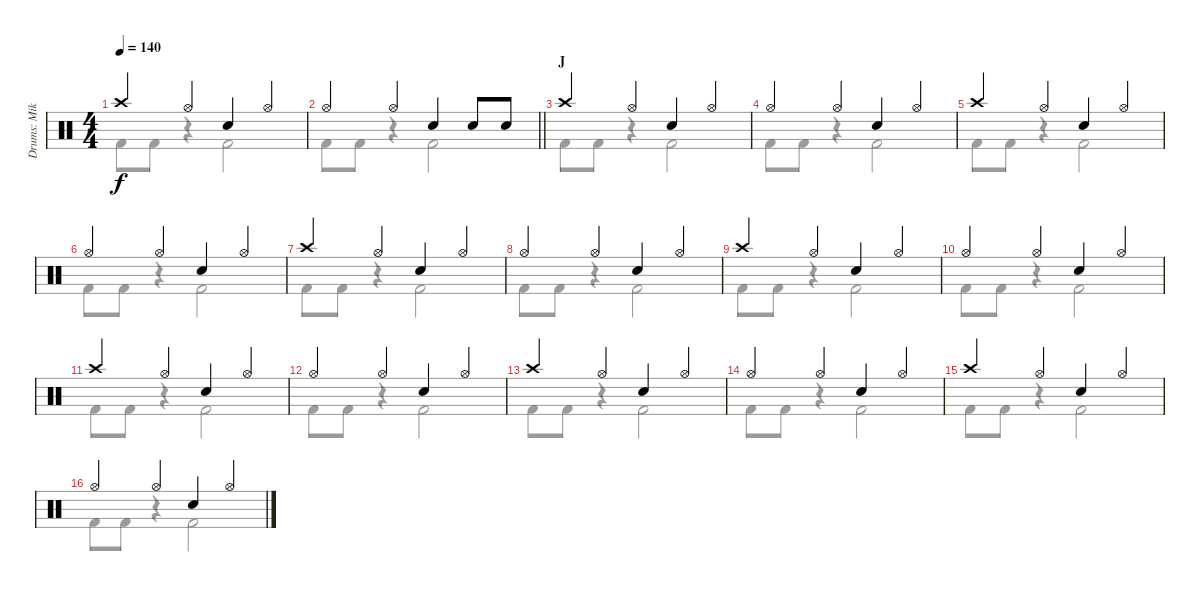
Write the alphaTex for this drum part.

\track ("Drums: Mike" "Drums: Mik") {instrument percussion}
\staff {score}
\articulation defaults
\voice
\ts (4 4)
\tempo 140
\clef neutral
\ks c "Crash high (hit)".4{dy f} "Hi-Hat (open)".4 "Snare (hit) 2".4 "Hi-Hat (open)".4
|
\barLineRight lightlight "Hi-Hat (open)".4 "Hi-Hat (open)".4 "Snare (hit) 2".4 "Snare (hit) 2".8 "Snare (hit) 2".8
|
\section ("" "J")
"Crash high (hit)".4 "Hi-Hat (open)".4 "Snare (hit) 2".4 "Hi-Hat (open)".4 |
"Hi-Hat (open)".4 "Hi-Hat (open)".4 "Snare (hit) 2".4 "Hi-Hat (open)".4 |
"Crash high (hit)".4 "Hi-Hat (open)".4 "Snare (hit) 2".4 "Hi-Hat (open)".4 |
"Hi-Hat (open)".4 "Hi-Hat (open)".4 "Snare (hit) 2".4 "Hi-Hat (open)".4 |
"Crash high (hit)".4 "Hi-Hat (open)".4 "Snare (hit) 2".4 "Hi-Hat (open)".4 |
"Hi-Hat (open)".4 "Hi-Hat (open)".4 "Snare (hit) 2".4 "Hi-Hat (open)".4 |
"Crash high (hit)".4 "Hi-Hat (open)".4 "Snare (hit) 2".4 "Hi-Hat (open)".4 |
"Hi-Hat (open)".4 "Hi-Hat (open)".4 "Snare (hit) 2".4 "Hi-Hat (open)".4 |
"Crash high (hit)".4 "Hi-Hat (open)".4 "Snare (hit) 2".4 "Hi-Hat (open)".4 |
"Hi-Hat (open)".4 "Hi-Hat (open)".4 "Snare (hit) 2".4 "Hi-Hat (open)".4 |
"Crash high (hit)".4 "Hi-Hat (open)".4 "Snare (hit) 2".4 "Hi-Hat (open)".4 |
"Hi-Hat (open)".4 "Hi-Hat (open)".4 "Snare (hit) 2".4 "Hi-Hat (open)".4 |
"Crash high (hit)".4 "Hi-Hat (open)".4 "Snare (hit) 2".4 "Hi-Hat (open)".4 |
"Hi-Hat (open)".4 "Hi-Hat (open)".4 "Snare (hit) 2".4 "Hi-Hat (open)".4
\voice
\clef neutral
\ottava regular
\simile none
\ks c "Kick (hit) 2".8{dy f} "Kick (hit) 2".8
r.4 "Kick (hit) 2".2 |
\barLineRight lightlight "Kick (hit) 2".8 "Kick (hit) 2".8
r.4 "Kick (hit) 2".2 |
"Kick (hit) 2".8 "Kick (hit) 2".8 r.4 "Kick (hit) 2".2 |
"Kick (hit) 2".8 "Kick (hit) 2".8 r.4 "Kick (hit) 2".2 |
"Kick (hit) 2".8 "Kick (hit) 2".8 r.4 "Kick (hit) 2".2 |
"Kick (hit) 2".8 "Kick (hit) 2".8 r.4 "Kick (hit) 2".2 |
"Kick (hit) 2".8 "Kick (hit) 2".8 r.4 "Kick (hit) 2".2 |
"Kick (hit) 2".8 "Kick (hit) 2".8 r.4 "Kick (hit) 2".2 |
"Kick (hit) 2".8 "Kick (hit) 2".8 r.4 "Kick (hit) 2".2 |
"Kick (hit) 2".8 "Kick (hit) 2".8 r.4 "Kick (hit) 2".2 |
"Kick (hit) 2".8 "Kick (hit) 2".8 r.4 "Kick (hit) 2".2 |
"Kick (hit) 2".8 "Kick (hit) 2".8 r.4 "Kick (hit) 2".2 |
"Kick (hit) 2".8 "Kick (hit) 2".8 r.4 "Kick (hit) 2".2 |
"Kick (hit) 2".8 "Kick (hit) 2".8 r.4 "Kick (hit) 2".2 |
"Kick (hit) 2".8 "Kick (hit) 2".8 r.4 "Kick (hit) 2".2 |
"Kick (hit) 2".8 "Kick (hit) 2".8 r.4 "Kick (hit) 2".2
